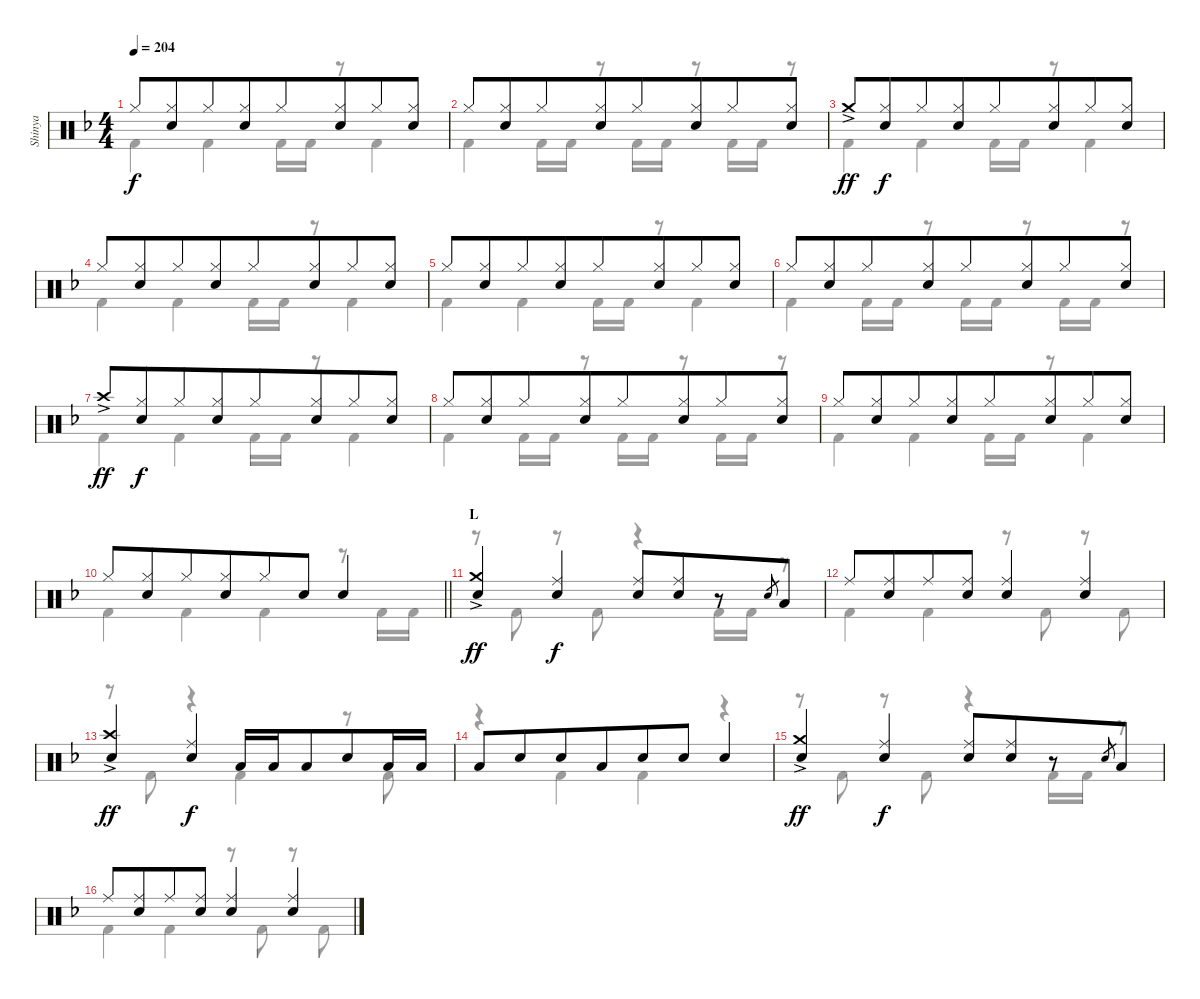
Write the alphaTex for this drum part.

\track ("Shinya" "Shinya") {mute instrument percussion}
\staff {score}
\articulation defaults
\voice
\ts (4 4)
\tempo 204
\clef neutral
\ks f "Hi-Hat (closed)".8{dy f}
("Hi-Hat (closed)" "Snare (hit) 2").8{beam merge} "Hi-Hat (closed)".8 ("Hi-Hat (closed)" "Snare (hit) 2").8{beam merge} "Hi-Hat (closed)".8 ("Hi-Hat (closed)" "Snare (hit) 2").8{beam merge} "Hi-Hat (closed)".8 ("Hi-Hat (closed)" "Snare (hit) 2").8 |
"Hi-Hat (closed)".8 ("Hi-Hat (closed)" "Snare (hit) 2").8{beam merge} "Hi-Hat (closed)".8 ("Hi-Hat (closed)" "Snare (hit) 2").8{beam merge} "Hi-Hat (closed)".8 ("Hi-Hat (closed)" "Snare (hit) 2").8{beam merge} "Hi-Hat (closed)".8 ("Hi-Hat (closed)" "Snare (hit) 2").8 |
"Crash medium (hit)"{ac}.8{dy ff} ("Hi-Hat (closed)" "Snare (hit) 2").8{dy f beam merge} "Hi-Hat (closed)".8{beam merge} ("Hi-Hat (closed)" "Snare (hit) 2").8{beam merge} "Hi-Hat (closed)".8 ("Hi-Hat (closed)" "Snare (hit) 2").8{beam merge} "Hi-Hat (closed)".8 ("Hi-Hat (closed)" "Snare (hit) 2").8 |
"Hi-Hat (closed)".8 ("Hi-Hat (closed)" "Snare (hit) 2").8{beam merge} "Hi-Hat (closed)".8 ("Hi-Hat (closed)" "Snare (hit) 2").8{beam merge} "Hi-Hat (closed)".8 ("Hi-Hat (closed)" "Snare (hit) 2").8{beam merge} "Hi-Hat (closed)".8 ("Hi-Hat (closed)" "Snare (hit) 2").8 |
"Hi-Hat (closed)".8 ("Hi-Hat (closed)" "Snare (hit) 2").8{beam merge} "Hi-Hat (closed)".8 ("Hi-Hat (closed)" "Snare (hit) 2").8{beam merge} "Hi-Hat (closed)".8 ("Hi-Hat (closed)" "Snare (hit) 2").8{beam merge} "Hi-Hat (closed)".8 ("Hi-Hat (closed)" "Snare (hit) 2").8 |
"Hi-Hat (closed)".8 ("Hi-Hat (closed)" "Snare (hit) 2").8{beam merge} "Hi-Hat (closed)".8 ("Hi-Hat (closed)" "Snare (hit) 2").8{beam merge} "Hi-Hat (closed)".8 ("Hi-Hat (closed)" "Snare (hit) 2").8{beam merge} "Hi-Hat (closed)".8 ("Hi-Hat (closed)" "Snare (hit) 2").8 |
"Crash high (hit)"{ac}.8{dy ff} ("Hi-Hat (closed)" "Snare (hit) 2").8{dy f beam merge} "Hi-Hat (closed)".8{beam merge} ("Hi-Hat (closed)" "Snare (hit) 2").8{beam merge} "Hi-Hat (closed)".8 ("Hi-Hat (closed)" "Snare (hit) 2").8{beam merge} "Hi-Hat (closed)".8 ("Hi-Hat (closed)" "Snare (hit) 2").8 |
"Hi-Hat (closed)".8 ("Hi-Hat (closed)" "Snare (hit) 2").8{beam merge} "Hi-Hat (closed)".8 ("Hi-Hat (closed)" "Snare (hit) 2").8{beam merge} "Hi-Hat (closed)".8 ("Hi-Hat (closed)" "Snare (hit) 2").8{beam merge} "Hi-Hat (closed)".8 ("Hi-Hat (closed)" "Snare (hit) 2").8 |
"Hi-Hat (closed)".8 ("Hi-Hat (closed)" "Snare (hit) 2").8{beam merge} "Hi-Hat (closed)".8 ("Hi-Hat (closed)" "Snare (hit) 2").8{beam merge} "Hi-Hat (closed)".8 ("Hi-Hat (closed)" "Snare (hit) 2").8{beam merge} "Hi-Hat (closed)".8 ("Hi-Hat (closed)" "Snare (hit) 2").8 |
\barLineRight lightlight "Hi-Hat (closed)".8
("Hi-Hat (closed)" "Snare (hit) 2").8{beam merge} "Hi-Hat (closed)".8 ("Hi-Hat (closed)" "Snare (hit) 2").8{beam merge} "Hi-Hat (closed)".8{beam merge} "Snare (hit) 2".8{beam merge} "Snare (hit) 2".4 |
\section ("" "L")
("Crash medium (hit)"{ac} "Snare (hit) 2").4{dy ff} ("Ride (middle)" "Snare (hit) 2").4{dy f} ("Ride (middle)" "Snare (hit) 2").8{beam merge} ("Ride (middle)" "Snare (hit) 2").8{beam merge} r.8 "Snare (hit)"{h}.8{gr} "Low Tom (hit)".8 |
"Ride (middle)".8 ("Ride (middle)" "Snare (hit) 2").8{beam merge} "Ride (middle)".8{beam merge} ("Ride (middle)" "Snare (hit) 2").8{beam merge} ("Ride (middle)" "Snare (hit) 2").4 ("Ride (middle)" "Snare (hit) 2").4 |
("Crash high (hit)"{ac} "Snare (hit) 2").4{dy ff} ("Ride (middle)" "Snare (hit) 2").4{dy f} "Low Tom (hit)".16 "Low Tom (hit)".16{beam merge} "Low Tom (hit)".8{beam merge} "Snare (hit) 2".8{beam merge} "Low Tom (hit)".16 "Low Tom (hit)".16 |
"Low Tom (hit)".8 "Snare (hit) 2".8{beam merge} "Snare (hit) 2".8{beam merge} "Low Tom (hit)".8{beam merge} "Snare (hit) 2".8 "Snare (hit) 2".8{beam merge} "Snare (hit) 2".4 |
("Crash medium (hit)"{ac} "Snare (hit) 2").4{dy ff} ("Ride (middle)" "Snare (hit) 2").4{dy f} ("Ride (middle)" "Snare (hit) 2").8{beam merge} ("Ride (middle)" "Snare (hit) 2").8{beam merge} r.8 "Snare (hit)"{h}.8{gr} "Low Tom (hit)".8 |
"Ride (middle)".8 ("Ride (middle)" "Snare (hit) 2").8{beam merge} "Ride (middle)".8{beam merge} ("Ride (middle)" "Snare (hit) 2").8{beam merge} ("Ride (middle)" "Snare (hit) 2").4 ("Ride (middle)" "Snare (hit) 2").4
\voice
\clef neutral
\ottava regular
\simile none
\ks f "Kick (hit) 2".4{dy f} "Kick (hit) 2".4 "Kick (hit) 2".16 "Kick (hit) 2".16
r.8 "Kick (hit) 2".4 |
"Kick (hit) 2".4 "Kick (hit) 2".16 "Kick (hit) 2".16 r.8 "Kick (hit) 2".16 "Kick (hit) 2".16 r.8 "Kick (hit) 2".16 "Kick (hit) 2".16 r.8 |
"Kick (hit) 2".4 "Kick (hit) 2".4 "Kick (hit) 2".16 "Kick (hit) 2".16 r.8 "Kick (hit) 2".4 |
"Kick (hit) 2".4 "Kick (hit) 2".4 "Kick (hit) 2".16 "Kick (hit) 2".16 r.8 "Kick (hit) 2".4 |
"Kick (hit) 2".4 "Kick (hit) 2".4 "Kick (hit) 2".16 "Kick (hit) 2".16 r.8 "Kick (hit) 2".4 |
"Kick (hit) 2".4 "Kick (hit) 2".16 "Kick (hit) 2".16 r.8 "Kick (hit) 2".16 "Kick (hit) 2".16 r.8 "Kick (hit) 2".16 "Kick (hit) 2".16 r.8 |
"Kick (hit) 2".4 "Kick (hit) 2".4 "Kick (hit) 2".16 "Kick (hit) 2".16 r.8 "Kick (hit) 2".4 |
"Kick (hit) 2".4 "Kick (hit) 2".16 "Kick (hit) 2".16 r.8 "Kick (hit) 2".16 "Kick (hit) 2".16 r.8 "Kick (hit) 2".16 "Kick (hit) 2".16 r.8 |
"Kick (hit) 2".4 "Kick (hit) 2".4 "Kick (hit) 2".16 "Kick (hit) 2".16 r.8 "Kick (hit) 2".4 |
\barLineRight lightlight "Kick (hit) 2".4 "Kick (hit) 2".4 "Kick (hit) 2".4
r.8 "Kick (hit) 2".16 "Kick (hit) 2".16 |
r.8 "Kick (hit) 2".8 r.8 "Kick (hit) 2".8 r.4 "Kick (hit) 2".16 "Kick (hit) 2".16 r.8 |
"Kick (hit) 2".4 "Kick (hit) 2".4 r.8 "Kick (hit) 2".8 r.8 "Kick (hit) 2".8 |
r.8 "Kick (hit) 2".8 r.4 "Kick (hit) 2".4 r.8 "Kick (hit) 2".8 |
r.4 "Kick (hit) 2".4 "Kick (hit) 2".4 r.4 |
r.8 "Kick (hit) 2".8 r.8 "Kick (hit) 2".8 r.4 "Kick (hit) 2".16 "Kick (hit) 2".16 r.8 |
"Kick (hit) 2".4 "Kick (hit) 2".4 r.8 "Kick (hit) 2".8 r.8 "Kick (hit) 2".8
